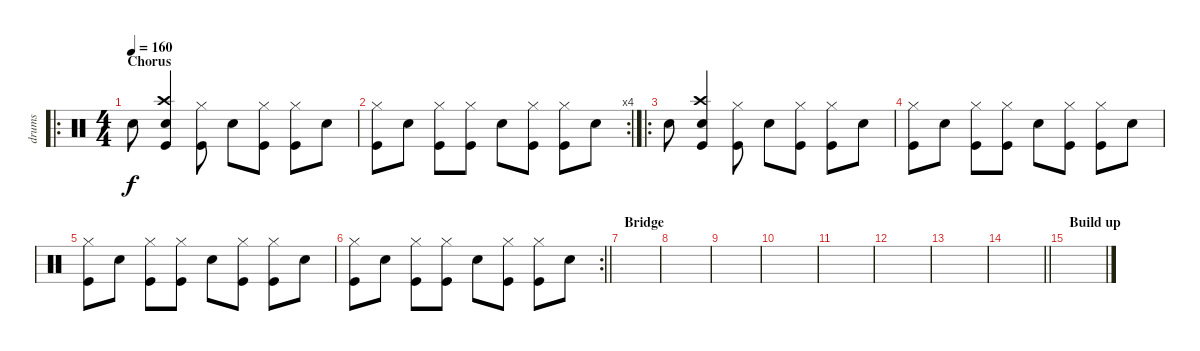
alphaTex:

\track ("drums" "drums") {instrument percussion}
\staff {score}
\articulation defaults
\ro
\ts (4 4)
\section ("" "Chorus")
\tempo 160
\clef neutral
\ks c "Electric Snare (hit)".8{dy f}
("Crash high (hit)" "Electric Snare (hit)" "Kick (hit)").4 ("Hi-Hat (closed)" "Kick (hit)").8 "Electric Snare (hit)".8 ("Hi-Hat (closed)" "Kick (hit)").8 ("Hi-Hat (closed)" "Kick (hit)").8 "Electric Snare (hit)".8 |
\rc 4
("Hi-Hat (closed)" "Kick (hit)").8 "Electric Snare (hit)".8 ("Hi-Hat (closed)" "Kick (hit)").8 ("Hi-Hat (closed)" "Kick (hit)").8 "Electric Snare (hit)".8 ("Hi-Hat (closed)" "Kick (hit)").8 ("Hi-Hat (closed)" "Kick (hit)").8 "Electric Snare (hit)".8 |
\ro "Electric Snare (hit)".8
("Crash high (hit)" "Electric Snare (hit)" "Kick (hit)").4 ("Hi-Hat (closed)" "Kick (hit)").8 "Electric Snare (hit)".8 ("Hi-Hat (closed)" "Kick (hit)").8 ("Hi-Hat (closed)" "Kick (hit)").8 "Electric Snare (hit)".8 |
("Hi-Hat (closed)" "Kick (hit)").8 "Electric Snare (hit)".8 ("Hi-Hat (closed)" "Kick (hit)").8 ("Hi-Hat (closed)" "Kick (hit)").8 "Electric Snare (hit)".8 ("Hi-Hat (closed)" "Kick (hit)").8 ("Hi-Hat (closed)" "Kick (hit)").8 "Electric Snare (hit)".8 |
("Hi-Hat (closed)" "Kick (hit)").8 "Electric Snare (hit)".8 ("Hi-Hat (closed)" "Kick (hit)").8 ("Hi-Hat (closed)" "Kick (hit)").8 "Electric Snare (hit)".8 ("Hi-Hat (closed)" "Kick (hit)").8 ("Hi-Hat (closed)" "Kick (hit)").8 "Electric Snare (hit)".8 |
\rc 2
\barLineRight lightlight
("Hi-Hat (closed)" "Kick (hit)").8 "Electric Snare (hit)".8 ("Hi-Hat (closed)" "Kick (hit)").8 ("Hi-Hat (closed)" "Kick (hit)").8 "Electric Snare (hit)".8 ("Hi-Hat (closed)" "Kick (hit)").8 ("Hi-Hat (closed)" "Kick (hit)").8 "Electric Snare (hit)".8 |
\section ("" "Bridge")
|
|
|
|
|
|
|
\barLineRight lightlight
|
\section ("" "Build up")
